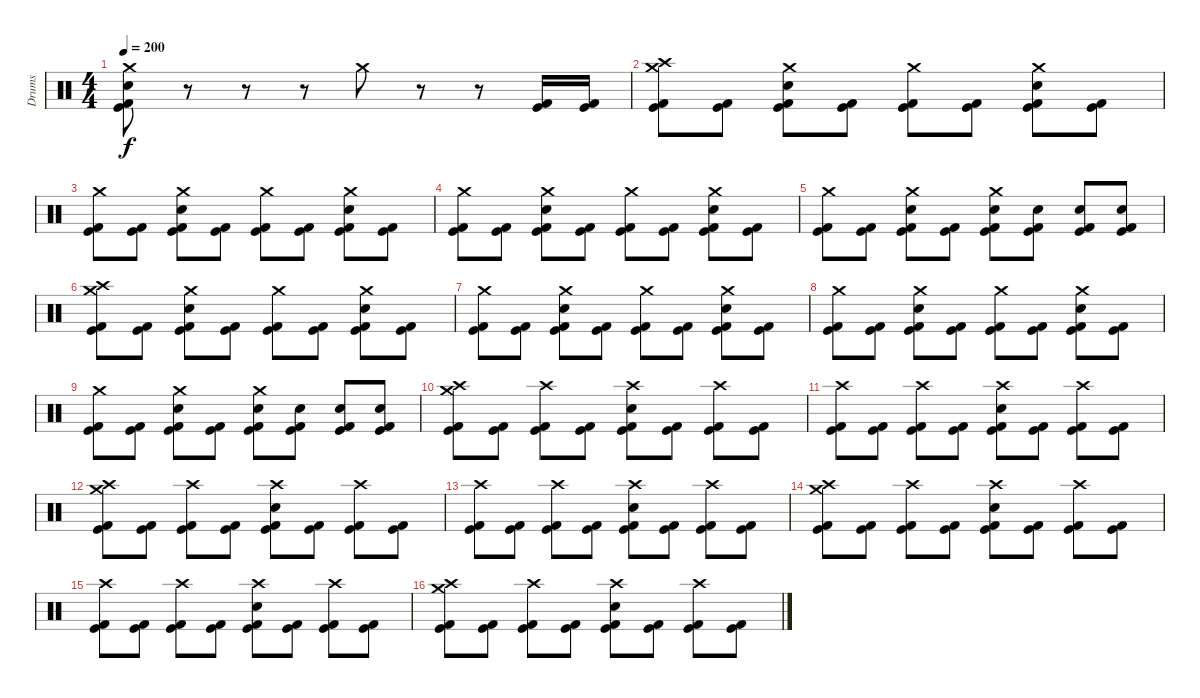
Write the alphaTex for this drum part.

\track ("Drums" "Drums") {instrument percussion}
\staff {score}
\articulation defaults
\ts (4 4)
\tempo 200
\clef neutral
\ks c
("Crash medium (hit)" "Electric Snare (hit)" "Kick (hit) 2" "Kick (hit)").8{dy f} r.8 r.8 r.8 "Crash medium (hit)".8 r.8 r.8 ("Kick (hit) 2" "Kick (hit)").16 ("Kick (hit) 2" "Kick (hit)").16 |
("Crash medium (hit)" "Crash high (hit)" "Kick (hit) 2" "Kick (hit)").8 ("Kick (hit) 2" "Kick (hit)").8 ("Crash medium (hit)" "Electric Snare (hit)" "Kick (hit) 2" "Kick (hit)").8 ("Kick (hit) 2" "Kick (hit)").8 ("Crash medium (hit)" "Kick (hit) 2" "Kick (hit)").8 ("Kick (hit) 2" "Kick (hit)").8 ("Crash medium (hit)" "Electric Snare (hit)" "Kick (hit) 2" "Kick (hit)").8 ("Kick (hit) 2" "Kick (hit)").8 |
("Crash medium (hit)" "Kick (hit) 2" "Kick (hit)").8 ("Kick (hit) 2" "Kick (hit)").8 ("Crash medium (hit)" "Electric Snare (hit)" "Kick (hit) 2" "Kick (hit)").8 ("Kick (hit) 2" "Kick (hit)").8 ("Crash medium (hit)" "Kick (hit) 2" "Kick (hit)").8 ("Kick (hit) 2" "Kick (hit)").8 ("Crash medium (hit)" "Electric Snare (hit)" "Kick (hit) 2" "Kick (hit)").8 ("Kick (hit) 2" "Kick (hit)").8 |
("Crash medium (hit)" "Kick (hit) 2" "Kick (hit)").8 ("Kick (hit) 2" "Kick (hit)").8 ("Crash medium (hit)" "Electric Snare (hit)" "Kick (hit) 2" "Kick (hit)").8 ("Kick (hit) 2" "Kick (hit)").8 ("Crash medium (hit)" "Kick (hit) 2" "Kick (hit)").8 ("Kick (hit) 2" "Kick (hit)").8 ("Crash medium (hit)" "Electric Snare (hit)" "Kick (hit) 2" "Kick (hit)").8 ("Kick (hit) 2" "Kick (hit)").8 |
("Crash medium (hit)" "Kick (hit) 2" "Kick (hit)").8 ("Kick (hit) 2" "Kick (hit)").8 ("Crash medium (hit)" "Electric Snare (hit)" "Kick (hit) 2" "Kick (hit)").8 ("Kick (hit) 2" "Kick (hit)").8 ("Crash medium (hit)" "Electric Snare (hit)" "Kick (hit) 2" "Kick (hit)").8 ("Electric Snare (hit)" "Kick (hit) 2" "Kick (hit)").8 ("Electric Snare (hit)" "Kick (hit) 2" "Kick (hit)").8 ("Electric Snare (hit)" "Kick (hit) 2" "Kick (hit)").8 |
("Crash medium (hit)" "Crash high (hit)" "Kick (hit) 2" "Kick (hit)").8 ("Kick (hit) 2" "Kick (hit)").8 ("Crash medium (hit)" "Electric Snare (hit)" "Kick (hit) 2" "Kick (hit)").8 ("Kick (hit) 2" "Kick (hit)").8 ("Crash medium (hit)" "Kick (hit) 2" "Kick (hit)").8 ("Kick (hit) 2" "Kick (hit)").8 ("Crash medium (hit)" "Electric Snare (hit)" "Kick (hit) 2" "Kick (hit)").8 ("Kick (hit) 2" "Kick (hit)").8 |
("Crash medium (hit)" "Kick (hit) 2" "Kick (hit)").8 ("Kick (hit) 2" "Kick (hit)").8 ("Crash medium (hit)" "Electric Snare (hit)" "Kick (hit) 2" "Kick (hit)").8 ("Kick (hit) 2" "Kick (hit)").8 ("Crash medium (hit)" "Kick (hit) 2" "Kick (hit)").8 ("Kick (hit) 2" "Kick (hit)").8 ("Crash medium (hit)" "Electric Snare (hit)" "Kick (hit) 2" "Kick (hit)").8 ("Kick (hit) 2" "Kick (hit)").8 |
("Crash medium (hit)" "Kick (hit) 2" "Kick (hit)").8 ("Kick (hit) 2" "Kick (hit)").8 ("Crash medium (hit)" "Electric Snare (hit)" "Kick (hit) 2" "Kick (hit)").8 ("Kick (hit) 2" "Kick (hit)").8 ("Crash medium (hit)" "Kick (hit) 2" "Kick (hit)").8 ("Kick (hit) 2" "Kick (hit)").8 ("Crash medium (hit)" "Electric Snare (hit)" "Kick (hit) 2" "Kick (hit)").8 ("Kick (hit) 2" "Kick (hit)").8 |
("Crash medium (hit)" "Kick (hit) 2" "Kick (hit)").8 ("Kick (hit) 2" "Kick (hit)").8 ("Crash medium (hit)" "Electric Snare (hit)" "Kick (hit) 2" "Kick (hit)").8 ("Kick (hit) 2" "Kick (hit)").8 ("Crash medium (hit)" "Electric Snare (hit)" "Kick (hit) 2" "Kick (hit)").8 ("Electric Snare (hit)" "Kick (hit) 2" "Kick (hit)").8 ("Electric Snare (hit)" "Kick (hit) 2" "Kick (hit)").8 ("Electric Snare (hit)" "Kick (hit) 2" "Kick (hit)").8 |
("Crash medium (hit)" "Crash high (hit)" "Kick (hit) 2" "Kick (hit)").8 ("Kick (hit) 2" "Kick (hit)").8 ("Crash high (hit)" "Kick (hit) 2" "Kick (hit)").8 ("Kick (hit) 2" "Kick (hit)").8 ("Crash high (hit)" "Electric Snare (hit)" "Kick (hit) 2" "Kick (hit)").8 ("Kick (hit) 2" "Kick (hit)").8 ("Crash high (hit)" "Kick (hit) 2" "Kick (hit)").8 ("Kick (hit) 2" "Kick (hit)").8 |
("Crash high (hit)" "Kick (hit) 2" "Kick (hit)").8 ("Kick (hit) 2" "Kick (hit)").8 ("Crash high (hit)" "Kick (hit) 2" "Kick (hit)").8 ("Kick (hit) 2" "Kick (hit)").8 ("Crash high (hit)" "Electric Snare (hit)" "Kick (hit) 2" "Kick (hit)").8 ("Kick (hit) 2" "Kick (hit)").8 ("Crash high (hit)" "Kick (hit) 2" "Kick (hit)").8 ("Kick (hit) 2" "Kick (hit)").8 |
("Crash medium (hit)" "Crash high (hit)" "Kick (hit) 2" "Kick (hit)").8 ("Kick (hit) 2" "Kick (hit)").8 ("Crash high (hit)" "Kick (hit) 2" "Kick (hit)").8 ("Kick (hit) 2" "Kick (hit)").8 ("Crash high (hit)" "Electric Snare (hit)" "Kick (hit) 2" "Kick (hit)").8 ("Kick (hit) 2" "Kick (hit)").8 ("Crash high (hit)" "Kick (hit) 2" "Kick (hit)").8 ("Kick (hit) 2" "Kick (hit)").8 |
("Crash high (hit)" "Kick (hit) 2" "Kick (hit)").8 ("Kick (hit) 2" "Kick (hit)").8 ("Crash high (hit)" "Kick (hit) 2" "Kick (hit)").8 ("Kick (hit) 2" "Kick (hit)").8 ("Crash high (hit)" "Electric Snare (hit)" "Kick (hit) 2" "Kick (hit)").8 ("Kick (hit) 2" "Kick (hit)").8 ("Crash high (hit)" "Kick (hit) 2" "Kick (hit)").8 ("Kick (hit) 2" "Kick (hit)").8 |
("Crash medium (hit)" "Crash high (hit)" "Kick (hit) 2" "Kick (hit)").8 ("Kick (hit) 2" "Kick (hit)").8 ("Crash high (hit)" "Kick (hit) 2" "Kick (hit)").8 ("Kick (hit) 2" "Kick (hit)").8 ("Crash high (hit)" "Electric Snare (hit)" "Kick (hit) 2" "Kick (hit)").8 ("Kick (hit) 2" "Kick (hit)").8 ("Crash high (hit)" "Kick (hit) 2" "Kick (hit)").8 ("Kick (hit) 2" "Kick (hit)").8 |
("Crash high (hit)" "Kick (hit) 2" "Kick (hit)").8 ("Kick (hit) 2" "Kick (hit)").8 ("Crash high (hit)" "Kick (hit) 2" "Kick (hit)").8 ("Kick (hit) 2" "Kick (hit)").8 ("Crash high (hit)" "Electric Snare (hit)" "Kick (hit) 2" "Kick (hit)").8 ("Kick (hit) 2" "Kick (hit)").8 ("Crash high (hit)" "Kick (hit) 2" "Kick (hit)").8 ("Kick (hit) 2" "Kick (hit)").8 |
("Crash medium (hit)" "Crash high (hit)" "Kick (hit) 2" "Kick (hit)").8 ("Kick (hit) 2" "Kick (hit)").8 ("Crash high (hit)" "Kick (hit) 2" "Kick (hit)").8 ("Kick (hit) 2" "Kick (hit)").8 ("Crash high (hit)" "Electric Snare (hit)" "Kick (hit) 2" "Kick (hit)").8 ("Kick (hit) 2" "Kick (hit)").8 ("Crash high (hit)" "Kick (hit) 2" "Kick (hit)").8 ("Kick (hit) 2" "Kick (hit)").8
